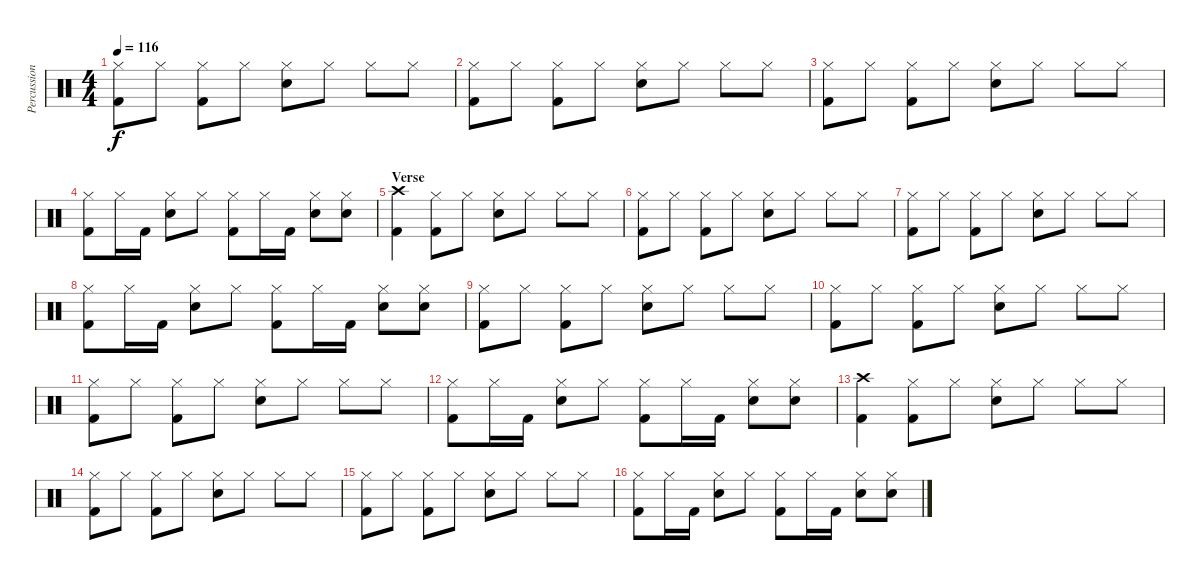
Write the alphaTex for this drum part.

\track ("Percussion" "Percussion") {instrument percussion}
\staff {score}
\articulation defaults
\ts (4 4)
\tempo 116
\clef neutral
\ks c
("Kick (hit) 2" "Hi-Hat (closed)").8{dy f} "Hi-Hat (closed)".8 ("Kick (hit) 2" "Hi-Hat (closed)").8 "Hi-Hat (closed)".8 ("Electric Snare (hit)" "Hi-Hat (closed)").8 "Hi-Hat (closed)".8 "Hi-Hat (closed)".8 "Hi-Hat (closed)".8 |
("Kick (hit) 2" "Hi-Hat (closed)").8 "Hi-Hat (closed)".8 ("Kick (hit) 2" "Hi-Hat (closed)").8 "Hi-Hat (closed)".8 ("Electric Snare (hit)" "Hi-Hat (closed)").8 "Hi-Hat (closed)".8 "Hi-Hat (closed)".8 "Hi-Hat (closed)".8 |
("Kick (hit) 2" "Hi-Hat (closed)").8 "Hi-Hat (closed)".8 ("Kick (hit) 2" "Hi-Hat (closed)").8 "Hi-Hat (closed)".8 ("Electric Snare (hit)" "Hi-Hat (closed)").8 "Hi-Hat (closed)".8 "Hi-Hat (closed)".8 "Hi-Hat (closed)".8 |
("Kick (hit) 2" "Hi-Hat (closed)").8 "Hi-Hat (closed)".16 "Kick (hit) 2".16 ("Electric Snare (hit)" "Hi-Hat (closed)").8 "Hi-Hat (closed)".8 ("Kick (hit) 2" "Hi-Hat (closed)").8 "Hi-Hat (closed)".16 "Kick (hit) 2".16 ("Electric Snare (hit)" "Hi-Hat (closed)").8 ("Electric Snare (hit)" "Hi-Hat (closed)").8 |
\section ("" "Verse")
("Kick (hit) 2" "Crash high (hit)").4 ("Kick (hit) 2" "Hi-Hat (closed)").8 "Hi-Hat (closed)".8 ("Electric Snare (hit)" "Hi-Hat (closed)").8 "Hi-Hat (closed)".8 "Hi-Hat (closed)".8 "Hi-Hat (closed)".8 |
("Kick (hit) 2" "Hi-Hat (closed)").8 "Hi-Hat (closed)".8 ("Kick (hit) 2" "Hi-Hat (closed)").8 "Hi-Hat (closed)".8 ("Electric Snare (hit)" "Hi-Hat (closed)").8 "Hi-Hat (closed)".8 "Hi-Hat (closed)".8 "Hi-Hat (closed)".8 |
("Kick (hit) 2" "Hi-Hat (closed)").8 "Hi-Hat (closed)".8 ("Kick (hit) 2" "Hi-Hat (closed)").8 "Hi-Hat (closed)".8 ("Electric Snare (hit)" "Hi-Hat (closed)").8 "Hi-Hat (closed)".8 "Hi-Hat (closed)".8 "Hi-Hat (closed)".8 |
("Kick (hit) 2" "Hi-Hat (closed)").8 "Hi-Hat (closed)".16 "Kick (hit) 2".16 ("Electric Snare (hit)" "Hi-Hat (closed)").8 "Hi-Hat (closed)".8 ("Kick (hit) 2" "Hi-Hat (closed)").8 "Hi-Hat (closed)".16 "Kick (hit) 2".16 ("Electric Snare (hit)" "Hi-Hat (closed)").8 ("Electric Snare (hit)" "Hi-Hat (closed)").8 |
("Kick (hit) 2" "Hi-Hat (closed)").8 "Hi-Hat (closed)".8 ("Kick (hit) 2" "Hi-Hat (closed)").8 "Hi-Hat (closed)".8 ("Electric Snare (hit)" "Hi-Hat (closed)").8 "Hi-Hat (closed)".8 "Hi-Hat (closed)".8 "Hi-Hat (closed)".8 |
("Kick (hit) 2" "Hi-Hat (closed)").8 "Hi-Hat (closed)".8 ("Kick (hit) 2" "Hi-Hat (closed)").8 "Hi-Hat (closed)".8 ("Electric Snare (hit)" "Hi-Hat (closed)").8 "Hi-Hat (closed)".8 "Hi-Hat (closed)".8 "Hi-Hat (closed)".8 |
("Kick (hit) 2" "Hi-Hat (closed)").8 "Hi-Hat (closed)".8 ("Kick (hit) 2" "Hi-Hat (closed)").8 "Hi-Hat (closed)".8 ("Electric Snare (hit)" "Hi-Hat (closed)").8 "Hi-Hat (closed)".8 "Hi-Hat (closed)".8 "Hi-Hat (closed)".8 |
("Kick (hit) 2" "Hi-Hat (closed)").8 "Hi-Hat (closed)".16 "Kick (hit) 2".16 ("Electric Snare (hit)" "Hi-Hat (closed)").8 "Hi-Hat (closed)".8 ("Kick (hit) 2" "Hi-Hat (closed)").8 "Hi-Hat (closed)".16 "Kick (hit) 2".16 ("Electric Snare (hit)" "Hi-Hat (closed)").8 ("Electric Snare (hit)" "Hi-Hat (closed)").8 |
("Kick (hit) 2" "Crash high (hit)").4 ("Kick (hit) 2" "Hi-Hat (closed)").8 "Hi-Hat (closed)".8 ("Electric Snare (hit)" "Hi-Hat (closed)").8 "Hi-Hat (closed)".8 "Hi-Hat (closed)".8 "Hi-Hat (closed)".8 |
("Kick (hit) 2" "Hi-Hat (closed)").8 "Hi-Hat (closed)".8 ("Kick (hit) 2" "Hi-Hat (closed)").8 "Hi-Hat (closed)".8 ("Electric Snare (hit)" "Hi-Hat (closed)").8 "Hi-Hat (closed)".8 "Hi-Hat (closed)".8 "Hi-Hat (closed)".8 |
("Kick (hit) 2" "Hi-Hat (closed)").8 "Hi-Hat (closed)".8 ("Kick (hit) 2" "Hi-Hat (closed)").8 "Hi-Hat (closed)".8 ("Electric Snare (hit)" "Hi-Hat (closed)").8 "Hi-Hat (closed)".8 "Hi-Hat (closed)".8 "Hi-Hat (closed)".8 |
("Kick (hit) 2" "Hi-Hat (closed)").8 "Hi-Hat (closed)".16 "Kick (hit) 2".16 ("Electric Snare (hit)" "Hi-Hat (closed)").8 "Hi-Hat (closed)".8 ("Kick (hit) 2" "Hi-Hat (closed)").8 "Hi-Hat (closed)".16 "Kick (hit) 2".16 ("Electric Snare (hit)" "Hi-Hat (closed)").8 ("Electric Snare (hit)" "Hi-Hat (closed)").8
